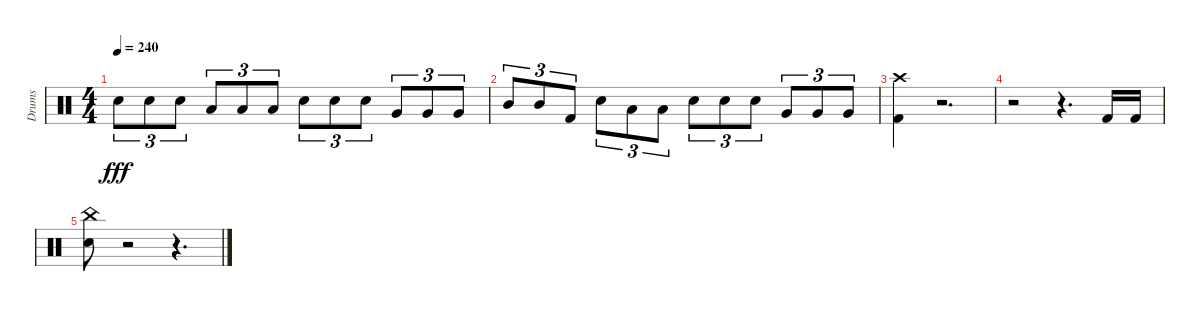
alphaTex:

\track ("Drums" "Drums") {instrument percussion}
\staff {score}
\articulation defaults
\ts (4 4)
\tempo 240
\clef neutral
\ks aminor "Snare (hit) 2".8{tu (3 2) dy fff} "Snare (hit) 2".8{tu (3 2)} "Snare (hit) 2".8{tu (3 2)} "Low Tom (hit)".8{tu (3 2)} "Low Tom (hit)".8{tu (3 2)} "Low Tom (hit)".8{tu (3 2)} "Snare (hit) 2".8{tu (3 2)} "Snare (hit) 2".8{tu (3 2)} "Snare (hit) 2".8{tu (3 2)} "Very Low Tom (hit)".8{tu (3 2)} "Very Low Tom (hit)".8{tu (3 2)} "Very Low Tom (hit)".8{tu (3 2)}
|
"Mid Tom (hit)".8{tu (3 2)} "Mid Tom (hit)".8{tu (3 2)} "Kick (hit) 2".8{tu (3 2)} "Snare (hit) 2".8{tu (3 2)} "Low Tom (hit)".8{tu (3 2)} "Low Tom (hit)".8{tu (3 2)} "Snare (hit) 2".8{tu (3 2)} "Snare (hit) 2".8{tu (3 2)} "Snare (hit) 2".8{tu (3 2)} "Very Low Tom (hit)".8{tu (3 2)} "Very Low Tom (hit)".8{tu (3 2)} "Very Low Tom (hit)".8{tu (3 2)} |
("Crash high (hit)" "Kick (hit) 2").4 r.2{d} |
r.2 r.4{d} "Kick (hit) 2".16 "Kick (hit) 2".16 |
("China (hit)" "Snare (hit) 2").8 r.2 r.4{d}
